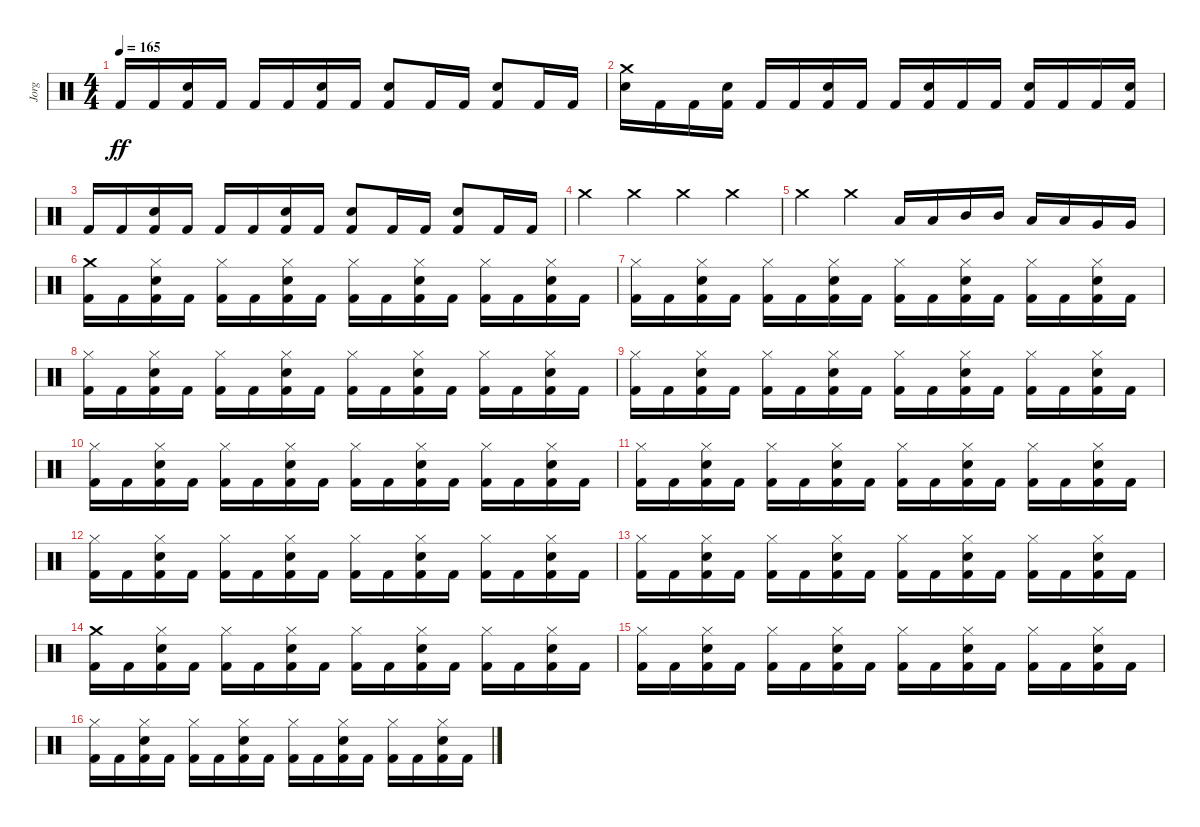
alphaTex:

\track ("Jorg" "Jorg") {instrument percussion}
\staff {score}
\articulation defaults
\ts (4 4)
\tempo 165
\clef neutral
\ks c "Kick (hit) 2".16{dy ff} "Kick (hit) 2".16
("Electric Snare (hit)" "Kick (hit) 2").16 "Kick (hit) 2".16 "Kick (hit) 2".16 "Kick (hit) 2".16 ("Electric Snare (hit)" "Kick (hit) 2").16 "Kick (hit) 2".16 ("Electric Snare (hit)" "Kick (hit) 2").8 "Kick (hit) 2".16 "Kick (hit) 2".16 ("Electric Snare (hit)" "Kick (hit) 2").8 "Kick (hit) 2".16 "Kick (hit) 2".16 |
("Crash medium (hit)" "Electric Snare (hit)").16 "Kick (hit) 2".16 "Kick (hit) 2".16 ("Electric Snare (hit)" "Kick (hit) 2").16 "Kick (hit) 2".16 "Kick (hit) 2".16 ("Electric Snare (hit)" "Kick (hit) 2").16 "Kick (hit) 2".16 "Kick (hit) 2".16 ("Electric Snare (hit)" "Kick (hit) 2").16 "Kick (hit) 2".16 "Kick (hit) 2".16 ("Electric Snare (hit)" "Kick (hit) 2").16 "Kick (hit) 2".16 "Kick (hit) 2".16 ("Electric Snare (hit)" "Kick (hit) 2").16 |
"Kick (hit) 2".16 "Kick (hit) 2".16 ("Electric Snare (hit)" "Kick (hit) 2").16 "Kick (hit) 2".16 "Kick (hit) 2".16 "Kick (hit) 2".16 ("Electric Snare (hit)" "Kick (hit) 2").16 "Kick (hit) 2".16 ("Electric Snare (hit)" "Kick (hit) 2").8 "Kick (hit) 2".16 "Kick (hit) 2".16 ("Electric Snare (hit)" "Kick (hit) 2").8 "Kick (hit) 2".16 "Kick (hit) 2".16 |
"Crash medium (hit)".4 "Crash medium (hit)".4 "Crash medium (hit)".4 "Crash medium (hit)".4 |
"Crash medium (hit)".4 "Crash medium (hit)".4 "Low Floor Tom (hit)".16 "Low Floor Tom (hit)".16 "Mid Tom (hit)".16 "Mid Tom (hit)".16 "Low Tom (hit)".16 "Low Tom (hit)".16 "Very Low Tom (hit)".16 "Very Low Tom (hit)".16 |
("Crash medium (hit)" "Kick (hit) 2").16 "Kick (hit) 2".16 ("Hi-Hat (closed)" "Electric Snare (hit)" "Kick (hit) 2").16 "Kick (hit) 2".16 ("Hi-Hat (closed)" "Kick (hit) 2").16 "Kick (hit) 2".16 ("Hi-Hat (closed)" "Electric Snare (hit)" "Kick (hit) 2").16 "Kick (hit) 2".16 ("Hi-Hat (closed)" "Kick (hit) 2").16 "Kick (hit) 2".16 ("Hi-Hat (closed)" "Electric Snare (hit)" "Kick (hit) 2").16 "Kick (hit) 2".16 ("Hi-Hat (closed)" "Kick (hit) 2").16 "Kick (hit) 2".16 ("Hi-Hat (closed)" "Electric Snare (hit)" "Kick (hit) 2").16 "Kick (hit) 2".16 |
("Hi-Hat (closed)" "Kick (hit) 2").16 "Kick (hit) 2".16 ("Hi-Hat (closed)" "Electric Snare (hit)" "Kick (hit) 2").16 "Kick (hit) 2".16 ("Hi-Hat (closed)" "Kick (hit) 2").16 "Kick (hit) 2".16 ("Hi-Hat (closed)" "Electric Snare (hit)" "Kick (hit) 2").16 "Kick (hit) 2".16 ("Hi-Hat (closed)" "Kick (hit) 2").16 "Kick (hit) 2".16 ("Hi-Hat (closed)" "Electric Snare (hit)" "Kick (hit) 2").16 "Kick (hit) 2".16 ("Hi-Hat (closed)" "Kick (hit) 2").16 "Kick (hit) 2".16 ("Hi-Hat (closed)" "Electric Snare (hit)" "Kick (hit) 2").16 "Kick (hit) 2".16 |
("Hi-Hat (closed)" "Kick (hit) 2").16 "Kick (hit) 2".16 ("Hi-Hat (closed)" "Electric Snare (hit)" "Kick (hit) 2").16 "Kick (hit) 2".16 ("Hi-Hat (closed)" "Kick (hit) 2").16 "Kick (hit) 2".16 ("Hi-Hat (closed)" "Electric Snare (hit)" "Kick (hit) 2").16 "Kick (hit) 2".16 ("Hi-Hat (closed)" "Kick (hit) 2").16 "Kick (hit) 2".16 ("Hi-Hat (closed)" "Electric Snare (hit)" "Kick (hit) 2").16 "Kick (hit) 2".16 ("Hi-Hat (closed)" "Kick (hit) 2").16 "Kick (hit) 2".16 ("Hi-Hat (closed)" "Electric Snare (hit)" "Kick (hit) 2").16 "Kick (hit) 2".16 |
("Hi-Hat (closed)" "Kick (hit) 2").16 "Kick (hit) 2".16 ("Hi-Hat (closed)" "Electric Snare (hit)" "Kick (hit) 2").16 "Kick (hit) 2".16 ("Hi-Hat (closed)" "Kick (hit) 2").16 "Kick (hit) 2".16 ("Hi-Hat (closed)" "Electric Snare (hit)" "Kick (hit) 2").16 "Kick (hit) 2".16 ("Hi-Hat (closed)" "Kick (hit) 2").16 "Kick (hit) 2".16 ("Hi-Hat (closed)" "Electric Snare (hit)" "Kick (hit) 2").16 "Kick (hit) 2".16 ("Hi-Hat (closed)" "Kick (hit) 2").16 "Kick (hit) 2".16 ("Hi-Hat (closed)" "Electric Snare (hit)" "Kick (hit) 2").16 "Kick (hit) 2".16 |
("Hi-Hat (closed)" "Kick (hit) 2").16 "Kick (hit) 2".16 ("Hi-Hat (closed)" "Electric Snare (hit)" "Kick (hit) 2").16 "Kick (hit) 2".16 ("Hi-Hat (closed)" "Kick (hit) 2").16 "Kick (hit) 2".16 ("Hi-Hat (closed)" "Electric Snare (hit)" "Kick (hit) 2").16 "Kick (hit) 2".16 ("Hi-Hat (closed)" "Kick (hit) 2").16 "Kick (hit) 2".16 ("Hi-Hat (closed)" "Electric Snare (hit)" "Kick (hit) 2").16 "Kick (hit) 2".16 ("Hi-Hat (closed)" "Kick (hit) 2").16 "Kick (hit) 2".16 ("Hi-Hat (closed)" "Electric Snare (hit)" "Kick (hit) 2").16 "Kick (hit) 2".16 |
("Hi-Hat (closed)" "Kick (hit) 2").16 "Kick (hit) 2".16 ("Hi-Hat (closed)" "Electric Snare (hit)" "Kick (hit) 2").16 "Kick (hit) 2".16 ("Hi-Hat (closed)" "Kick (hit) 2").16 "Kick (hit) 2".16 ("Hi-Hat (closed)" "Electric Snare (hit)" "Kick (hit) 2").16 "Kick (hit) 2".16 ("Hi-Hat (closed)" "Kick (hit) 2").16 "Kick (hit) 2".16 ("Hi-Hat (closed)" "Electric Snare (hit)" "Kick (hit) 2").16 "Kick (hit) 2".16 ("Hi-Hat (closed)" "Kick (hit) 2").16 "Kick (hit) 2".16 ("Hi-Hat (closed)" "Electric Snare (hit)" "Kick (hit) 2").16 "Kick (hit) 2".16 |
("Hi-Hat (closed)" "Kick (hit) 2").16 "Kick (hit) 2".16 ("Hi-Hat (closed)" "Electric Snare (hit)" "Kick (hit) 2").16 "Kick (hit) 2".16 ("Hi-Hat (closed)" "Kick (hit) 2").16 "Kick (hit) 2".16 ("Hi-Hat (closed)" "Electric Snare (hit)" "Kick (hit) 2").16 "Kick (hit) 2".16 ("Hi-Hat (closed)" "Kick (hit) 2").16 "Kick (hit) 2".16 ("Hi-Hat (closed)" "Electric Snare (hit)" "Kick (hit) 2").16 "Kick (hit) 2".16 ("Hi-Hat (closed)" "Kick (hit) 2").16 "Kick (hit) 2".16 ("Hi-Hat (closed)" "Electric Snare (hit)" "Kick (hit) 2").16 "Kick (hit) 2".16 |
("Hi-Hat (closed)" "Kick (hit) 2").16 "Kick (hit) 2".16 ("Hi-Hat (closed)" "Electric Snare (hit)" "Kick (hit) 2").16 "Kick (hit) 2".16 ("Hi-Hat (closed)" "Kick (hit) 2").16 "Kick (hit) 2".16 ("Hi-Hat (closed)" "Electric Snare (hit)" "Kick (hit) 2").16 "Kick (hit) 2".16 ("Hi-Hat (closed)" "Kick (hit) 2").16 "Kick (hit) 2".16 ("Hi-Hat (closed)" "Electric Snare (hit)" "Kick (hit) 2").16 "Kick (hit) 2".16 ("Hi-Hat (closed)" "Kick (hit) 2").16 "Kick (hit) 2".16 ("Hi-Hat (closed)" "Electric Snare (hit)" "Kick (hit) 2").16 "Kick (hit) 2".16 |
("Crash medium (hit)" "Kick (hit) 2").16 "Kick (hit) 2".16 ("Hi-Hat (closed)" "Electric Snare (hit)" "Kick (hit) 2").16 "Kick (hit) 2".16 ("Hi-Hat (closed)" "Kick (hit) 2").16 "Kick (hit) 2".16 ("Hi-Hat (closed)" "Electric Snare (hit)" "Kick (hit) 2").16 "Kick (hit) 2".16 ("Hi-Hat (closed)" "Kick (hit) 2").16 "Kick (hit) 2".16 ("Hi-Hat (closed)" "Electric Snare (hit)" "Kick (hit) 2").16 "Kick (hit) 2".16 ("Hi-Hat (closed)" "Kick (hit) 2").16 "Kick (hit) 2".16 ("Hi-Hat (closed)" "Electric Snare (hit)" "Kick (hit) 2").16 "Kick (hit) 2".16 |
("Hi-Hat (closed)" "Kick (hit) 2").16 "Kick (hit) 2".16 ("Hi-Hat (closed)" "Electric Snare (hit)" "Kick (hit) 2").16 "Kick (hit) 2".16 ("Hi-Hat (closed)" "Kick (hit) 2").16 "Kick (hit) 2".16 ("Hi-Hat (closed)" "Electric Snare (hit)" "Kick (hit) 2").16 "Kick (hit) 2".16 ("Hi-Hat (closed)" "Kick (hit) 2").16 "Kick (hit) 2".16 ("Hi-Hat (closed)" "Electric Snare (hit)" "Kick (hit) 2").16 "Kick (hit) 2".16 ("Hi-Hat (closed)" "Kick (hit) 2").16 "Kick (hit) 2".16 ("Hi-Hat (closed)" "Electric Snare (hit)" "Kick (hit) 2").16 "Kick (hit) 2".16 |
("Hi-Hat (closed)" "Kick (hit) 2").16 "Kick (hit) 2".16 ("Hi-Hat (closed)" "Electric Snare (hit)" "Kick (hit) 2").16 "Kick (hit) 2".16 ("Hi-Hat (closed)" "Kick (hit) 2").16 "Kick (hit) 2".16 ("Hi-Hat (closed)" "Electric Snare (hit)" "Kick (hit) 2").16 "Kick (hit) 2".16 ("Hi-Hat (closed)" "Kick (hit) 2").16 "Kick (hit) 2".16 ("Hi-Hat (closed)" "Electric Snare (hit)" "Kick (hit) 2").16 "Kick (hit) 2".16 ("Hi-Hat (closed)" "Kick (hit) 2").16 "Kick (hit) 2".16 ("Hi-Hat (closed)" "Electric Snare (hit)" "Kick (hit) 2").16 "Kick (hit) 2".16
